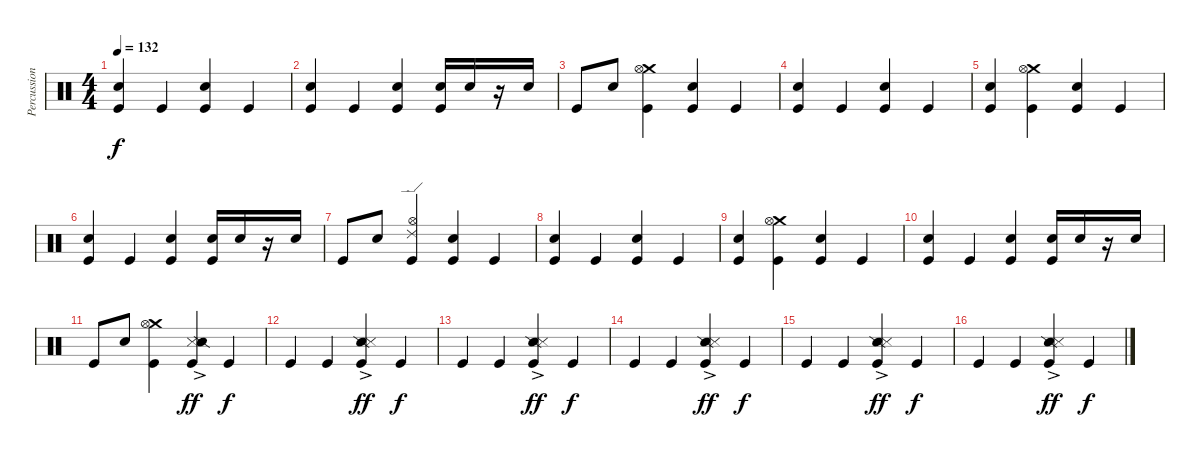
\track ("Percussions" "Percussion") {instrument percussion}
\staff {score}
\articulation defaults
\ts (4 4)
\tempo 132
\clef neutral
\ks c
("Snare (hit) 2" "Kick (hit)").4{dy f} "Kick (hit)".4 ("Snare (hit) 2" "Kick (hit)").4 "Kick (hit)".4 |
("Snare (hit) 2" "Kick (hit)").4 "Kick (hit)".4 ("Snare (hit) 2" "Kick (hit)").4 ("Electric Snare (hit)" "Kick (hit)").16 "Electric Snare (hit)".16 r.16 "Electric Snare (hit)".16 |
"Kick (hit)".8 "Electric Snare (hit)".8 ("Crash medium (hit)" "Hi-Hat (open)" "Kick (hit)").4 ("Snare (hit) 2" "Kick (hit)").4 "Kick (hit)".4 |
("Snare (hit) 2" "Kick (hit)").4 "Kick (hit)".4 ("Snare (hit) 2" "Kick (hit)").4 "Kick (hit)".4 |
("Snare (hit) 2" "Kick (hit)").4 ("Crash medium (hit)" "Hi-Hat (open)" "Kick (hit)").4 ("Snare (hit) 2" "Kick (hit)").4 "Kick (hit)".4 |
("Snare (hit) 2" "Kick (hit)").4 "Kick (hit)".4 ("Snare (hit) 2" "Kick (hit)").4 ("Electric Snare (hit)" "Kick (hit)").16 "Electric Snare (hit)".16 r.16 "Electric Snare (hit)".16 |
"Kick (hit)".8 "Electric Snare (hit)".8 ("Ride (edge) 2" "Hi-Hat (open)" "Kick (hit)").4 ("Snare (hit) 2" "Kick (hit)").4 "Kick (hit)".4 |
("Snare (hit) 2" "Kick (hit)").4 "Kick (hit)".4 ("Snare (hit) 2" "Kick (hit)").4 "Kick (hit)".4 |
("Snare (hit) 2" "Kick (hit)").4 ("Crash medium (hit)" "Hi-Hat (open)" "Kick (hit)").4 ("Snare (hit) 2" "Kick (hit)").4 "Kick (hit)".4 |
("Snare (hit) 2" "Kick (hit)").4 "Kick (hit)".4 ("Snare (hit) 2" "Kick (hit)").4 ("Electric Snare (hit)" "Kick (hit)").16 "Electric Snare (hit)".16 r.16 "Electric Snare (hit)".16 |
"Kick (hit)".8 "Electric Snare (hit)".8 ("Crash medium (hit)" "Hi-Hat (open)" "Kick (hit)").4 ("Snare (side stick) 3"{ac} "Snare (side stick) 2"{ac} "Kick (hit)").4{dy ff} "Kick (hit)".4{dy f} |
"Kick (hit)".4 "Kick (hit)".4 ("Snare (side stick) 2"{ac} "Snare (side stick) 3"{ac} "Kick (hit)").4{dy ff} "Kick (hit)".4{dy f} |
"Kick (hit)".4 "Kick (hit)".4 ("Snare (side stick) 2"{ac} "Snare (side stick) 3"{ac} "Kick (hit)").4{dy ff} "Kick (hit)".4{dy f} |
"Kick (hit)".4 "Kick (hit)".4 ("Snare (side stick) 2"{ac} "Snare (side stick) 3"{ac} "Kick (hit)").4{dy ff} "Kick (hit)".4{dy f} |
"Kick (hit)".4 "Kick (hit)".4 ("Snare (side stick) 2"{ac} "Snare (side stick) 3"{ac} "Kick (hit)").4{dy ff} "Kick (hit)".4{dy f} |
"Kick (hit)".4 "Kick (hit)".4 ("Snare (side stick) 2"{ac} "Snare (side stick) 3"{ac} "Kick (hit)").4{dy ff} "Kick (hit)".4{dy f}
